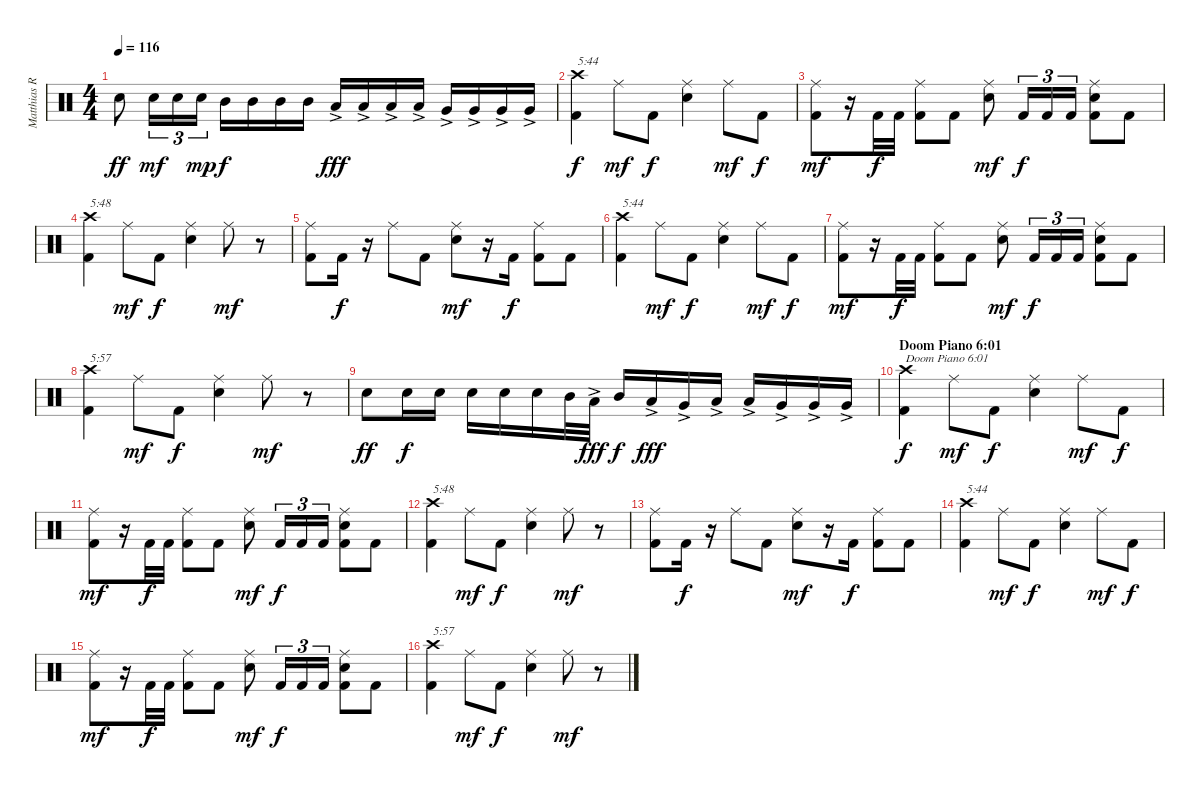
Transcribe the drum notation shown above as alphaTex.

\track ("Matthias R." "Matthias R") {instrument percussion}
\staff {score}
\articulation defaults
\ts (4 4)
\tempo 116
\clef neutral
\ks c "Electric Snare (hit)".8{dy ff} "Electric Snare (hit)".16{tu (3 2) dy mf} "Electric Snare (hit)".16{tu (3 2)} "Electric Snare (hit)".16{tu (3 2) dy mp} "Mid Tom (hit)".16{dy f} "Mid Tom (hit)".16 "Mid Tom (hit)".16 "Mid Tom (hit)".16 "Low Tom (hit)"{ac}.16{dy fff} "Low Tom (hit)"{ac}.16 "Low Tom (hit)"{ac}.16 "Low Tom (hit)"{ac}.16 "Very Low Tom (hit)"{ac}.16 "Very Low Tom (hit)"{ac}.16 "Very Low Tom (hit)"{ac}.16 "Very Low Tom (hit)"{ac}.16
|
("Kick (hit) 2" "Crash high (hit)").4{txt "5:44" dy f} "Ride (middle)".8{dy mf} "Kick (hit) 2".8{dy f} ("Electric Snare (hit)" "Ride (middle)").4 "Ride (middle)".8{dy mf} "Kick (hit) 2".8{dy f} |
("Kick (hit) 2" "Ride (middle)").8{dy mf} r.16 "Kick (hit) 2".32{dy f} "Kick (hit) 2".32 ("Kick (hit) 2" "Ride (middle)").8 "Kick (hit) 2".8 ("Electric Snare (hit)" "Ride (middle)").8{dy mf} "Kick (hit) 2".16{tu (3 2) dy f} "Kick (hit) 2".16{tu (3 2)} "Kick (hit) 2".16{tu (3 2)} ("Kick (hit) 2" "Electric Snare (hit)" "Ride (middle)").8 "Kick (hit) 2".8 |
("Kick (hit) 2" "Crash high (hit)").4{txt "5:48"} "Ride (middle)".8{dy mf} "Kick (hit) 2".8{dy f} ("Electric Snare (hit)" "Ride (middle)").4 "Ride (middle)".8{dy mf} r.8 |
("Kick (hit) 2" "Ride (middle)").8 "Kick (hit) 2".16{dy f} r.16 "Ride (middle)".8 "Kick (hit) 2".8 ("Electric Snare (hit)" "Ride (middle)").8{dy mf} r.16 "Kick (hit) 2".16{dy f} ("Kick (hit) 2" "Ride (middle)").8 "Kick (hit) 2".8 |
("Kick (hit) 2" "Crash high (hit)").4{txt "5:44"} "Ride (middle)".8{dy mf} "Kick (hit) 2".8{dy f} ("Electric Snare (hit)" "Ride (middle)").4 "Ride (middle)".8{dy mf} "Kick (hit) 2".8{dy f} |
("Kick (hit) 2" "Ride (middle)").8{dy mf} r.16 "Kick (hit) 2".32{dy f} "Kick (hit) 2".32 ("Kick (hit) 2" "Ride (middle)").8 "Kick (hit) 2".8 ("Electric Snare (hit)" "Ride (middle)").8{dy mf} "Kick (hit) 2".16{tu (3 2) dy f} "Kick (hit) 2".16{tu (3 2)} "Kick (hit) 2".16{tu (3 2)} ("Kick (hit) 2" "Electric Snare (hit)" "Ride (middle)").8 "Kick (hit) 2".8 |
("Kick (hit) 2" "Crash high (hit)").4{txt "5:57"} "Ride (middle)".8{dy mf} "Kick (hit) 2".8{dy f} ("Electric Snare (hit)" "Ride (middle)").4 "Ride (middle)".8{dy mf} r.8 |
"Electric Snare (hit)".8{dy ff} "Electric Snare (hit)".16{dy f} "Electric Snare (hit)".16 "Electric Snare (hit)".16 "Electric Snare (hit)".16 "Electric Snare (hit)".16 "Mid Tom (hit)".32 "Low Tom (hit)"{ac}.32{dy fff} "Mid Tom (hit)".16{dy f} "Low Tom (hit)"{ac}.16{dy fff} "Very Low Tom (hit)"{ac}.16 "Low Tom (hit)"{ac}.16 "Low Tom (hit)"{ac}.16 "Very Low Tom (hit)"{ac}.16 "Very Low Tom (hit)"{ac}.16 "Very Low Tom (hit)"{ac}.16 |
\section ("" "Doom Piano 6:01")
("Kick (hit) 2" "Crash high (hit)").4{txt "Doom Piano 6:01" dy f} "Ride (middle)".8{dy mf} "Kick (hit) 2".8{dy f} ("Electric Snare (hit)" "Ride (middle)").4 "Ride (middle)".8{dy mf} "Kick (hit) 2".8{dy f} |
("Kick (hit) 2" "Ride (middle)").8{dy mf} r.16 "Kick (hit) 2".32{dy f} "Kick (hit) 2".32 ("Kick (hit) 2" "Ride (middle)").8 "Kick (hit) 2".8 ("Electric Snare (hit)" "Ride (middle)").8{dy mf} "Kick (hit) 2".16{tu (3 2) dy f} "Kick (hit) 2".16{tu (3 2)} "Kick (hit) 2".16{tu (3 2)} ("Kick (hit) 2" "Electric Snare (hit)" "Ride (middle)").8 "Kick (hit) 2".8 |
("Kick (hit) 2" "Crash high (hit)").4{txt "5:48"} "Ride (middle)".8{dy mf} "Kick (hit) 2".8{dy f} ("Electric Snare (hit)" "Ride (middle)").4 "Ride (middle)".8{dy mf} r.8 |
("Kick (hit) 2" "Ride (middle)").8 "Kick (hit) 2".16{dy f} r.16 "Ride (middle)".8 "Kick (hit) 2".8 ("Electric Snare (hit)" "Ride (middle)").8{dy mf} r.16 "Kick (hit) 2".16{dy f} ("Kick (hit) 2" "Ride (middle)").8 "Kick (hit) 2".8 |
("Kick (hit) 2" "Crash high (hit)").4{txt "5:44"} "Ride (middle)".8{dy mf} "Kick (hit) 2".8{dy f} ("Electric Snare (hit)" "Ride (middle)").4 "Ride (middle)".8{dy mf} "Kick (hit) 2".8{dy f} |
("Kick (hit) 2" "Ride (middle)").8{dy mf} r.16 "Kick (hit) 2".32{dy f} "Kick (hit) 2".32 ("Kick (hit) 2" "Ride (middle)").8 "Kick (hit) 2".8 ("Electric Snare (hit)" "Ride (middle)").8{dy mf} "Kick (hit) 2".16{tu (3 2) dy f} "Kick (hit) 2".16{tu (3 2)} "Kick (hit) 2".16{tu (3 2)} ("Kick (hit) 2" "Electric Snare (hit)" "Ride (middle)").8 "Kick (hit) 2".8 |
("Kick (hit) 2" "Crash high (hit)").4{txt "5:57"} "Ride (middle)".8{dy mf} "Kick (hit) 2".8{dy f} ("Electric Snare (hit)" "Ride (middle)").4 "Ride (middle)".8{dy mf} r.8
